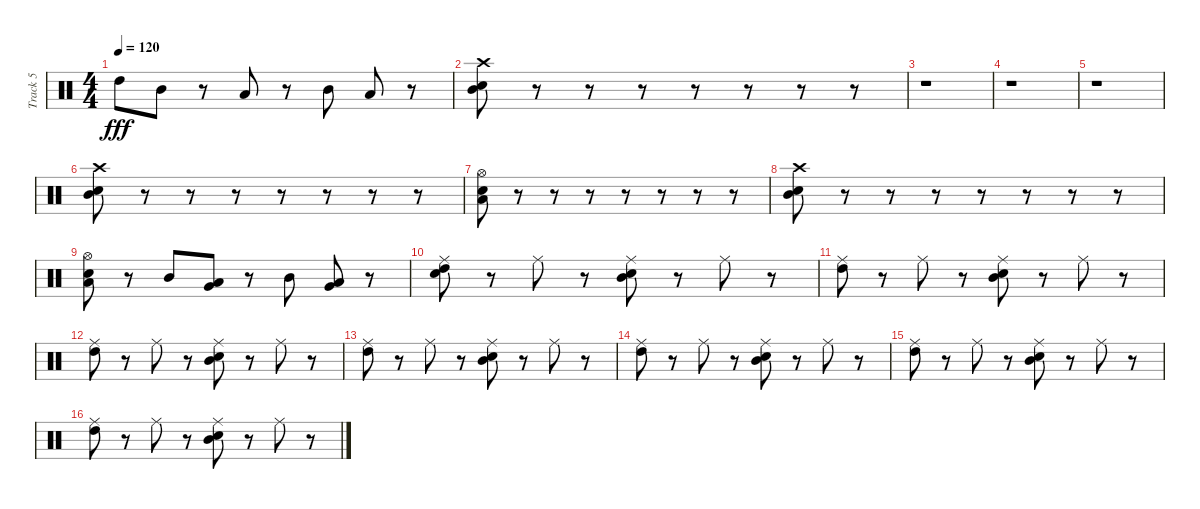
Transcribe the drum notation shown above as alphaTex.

\track ("Track 5" "Track 5") {instrument percussion}
\staff {score}
\articulation defaults
\ts (4 4)
\tempo 120
\clef neutral
\ks c "High Tom (hit)".8{dy fff} "Mid Tom (hit)".8
r.8 "Low Tom (hit)".8 r.8 "Mid Tom (hit)".8 "Low Tom (hit)".8 r.8 |
("Crash high (hit)" "Mid Tom (hit)" "Snare (hit) 2").8 r.8 r.8 r.8 r.8 r.8 r.8 r.8 |
r.1 |
r.1 |
r.1 |
("Crash high (hit)" "Mid Tom (hit)" "Snare (hit) 2").8 r.8 r.8 r.8 r.8 r.8 r.8 r.8 |
("Hi-Hat (open)" "Low Tom (hit)" "Electric Snare (hit)").8 r.8 r.8 r.8 r.8 r.8 r.8 r.8 |
("Crash high (hit)" "Mid Tom (hit)" "Snare (hit) 2").8 r.8 r.8 r.8 r.8 r.8 r.8 r.8 |
("Electric Snare (hit)" "Hi-Hat (open)" "Low Tom (hit)").8 r.8 "Mid Tom (hit)".8 ("Low Tom (hit)" "Very Low Tom (hit)").8 r.8 "Mid Tom (hit)".8 ("Low Tom (hit)" "Very Low Tom (hit)").8 r.8 |
("High Tom (hit)" "Ride (middle)" "Electric Snare (hit)").8 r.8 "Ride (middle)".8 r.8 ("Mid Tom (hit)" "Snare (hit) 2" "Ride (middle)").8 r.8 "Ride (middle)".8 r.8 |
("High Tom (hit)" "Ride (middle)").8 r.8 "Ride (middle)".8 r.8 ("Mid Tom (hit)" "Snare (hit) 2" "Ride (middle)").8 r.8 "Ride (middle)".8 r.8 |
("High Tom (hit)" "Ride (middle)").8 r.8 "Ride (middle)".8 r.8 ("Mid Tom (hit)" "Snare (hit) 2" "Ride (middle)").8 r.8 "Ride (middle)".8 r.8 |
("High Tom (hit)" "Ride (middle)").8 r.8 "Ride (middle)".8 r.8 ("Mid Tom (hit)" "Snare (hit) 2" "Ride (middle)").8 r.8 "Ride (middle)".8 r.8 |
("High Tom (hit)" "Ride (middle)").8 r.8 "Ride (middle)".8 r.8 ("Mid Tom (hit)" "Snare (hit) 2" "Ride (middle)").8 r.8 "Ride (middle)".8 r.8 |
("High Tom (hit)" "Ride (middle)").8 r.8 "Ride (middle)".8 r.8 ("Mid Tom (hit)" "Snare (hit) 2" "Ride (middle)").8 r.8 "Ride (middle)".8 r.8 |
("High Tom (hit)" "Ride (middle)").8 r.8 "Ride (middle)".8 r.8 ("Mid Tom (hit)" "Snare (hit) 2" "Ride (middle)").8 r.8 "Ride (middle)".8 r.8
